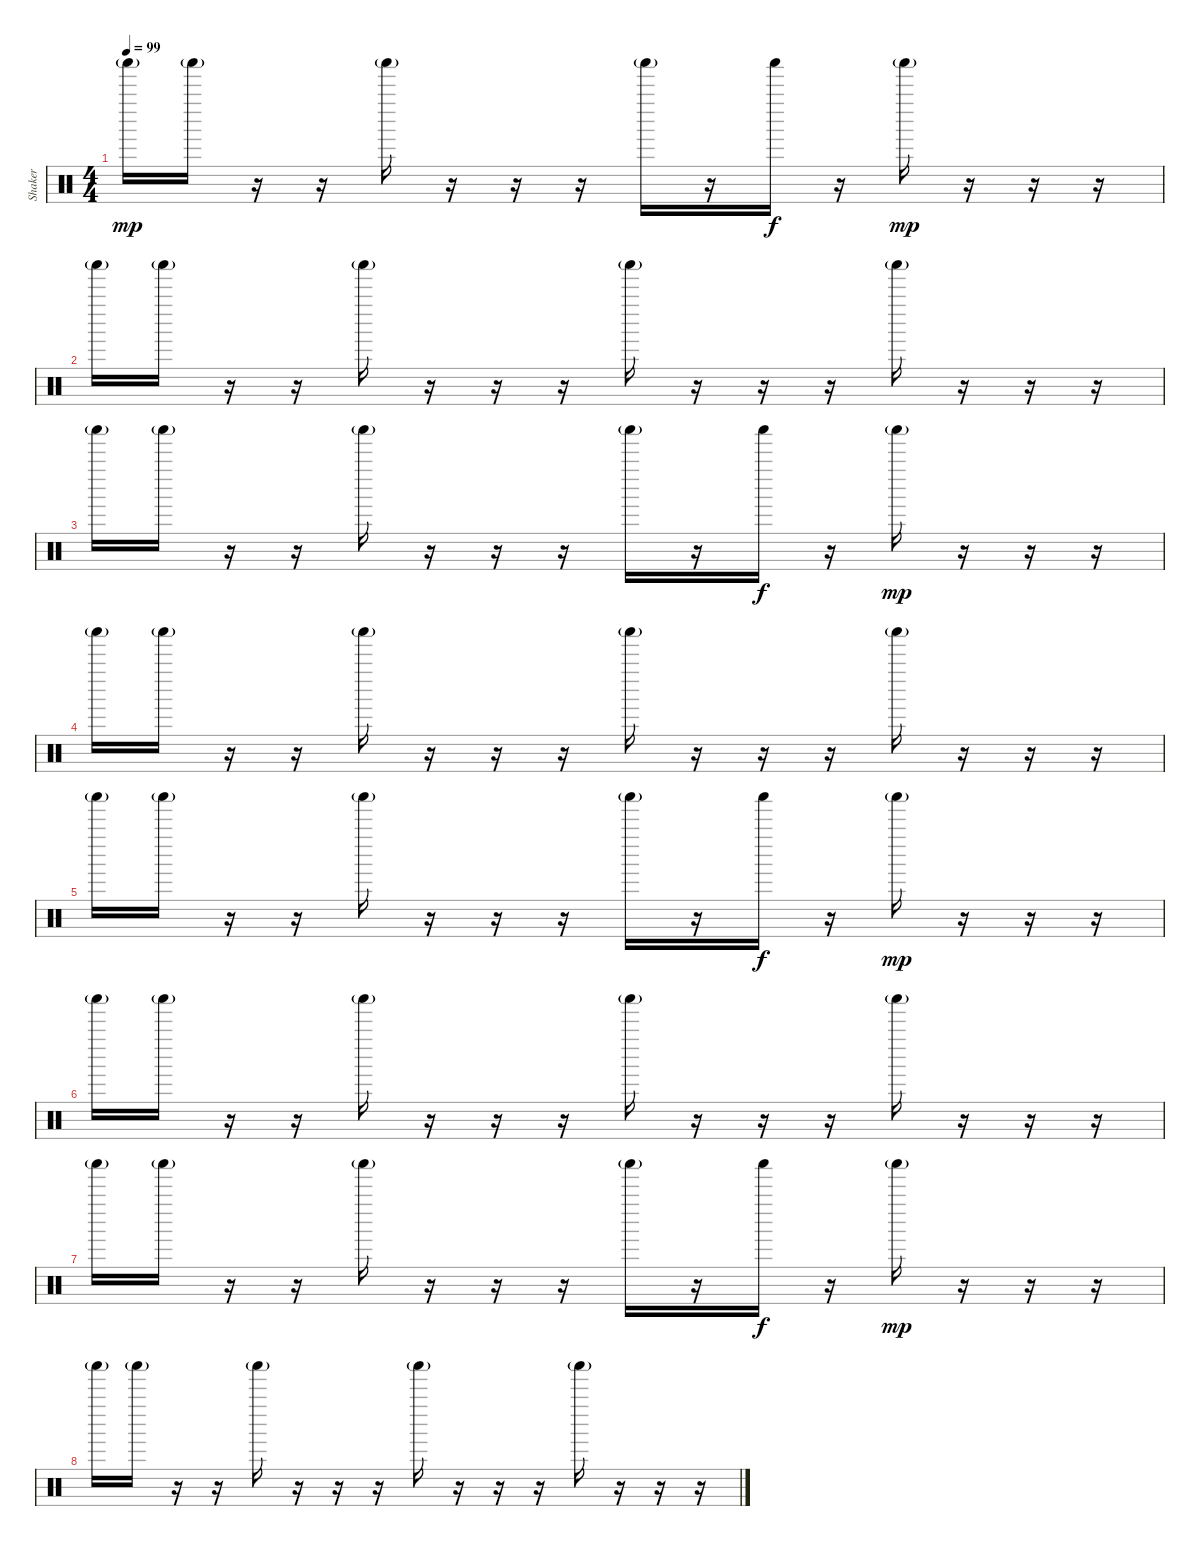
\track ("Shaker" "Shaker") {instrument percussion}
\staff {score}
\articulation defaults
\ts (4 4)
\tempo 99
\clef neutral
\ks c "Shaker (hit)"{g}.16{dy mp} "Shaker (hit)"{g}.16
r.16 r.16 "Shaker (hit)"{g}.16 r.16 r.16 r.16 "Shaker (hit)"{g}.16 r.16 "Shaker (hit)".16{dy f} r.16 "Shaker (hit)"{g}.16{dy mp} r.16 r.16 r.16 |
"Shaker (hit)"{g}.16 "Shaker (hit)"{g}.16 r.16 r.16 "Shaker (hit)"{g}.16 r.16 r.16 r.16 "Shaker (hit)"{g}.16 r.16 r.16 r.16 "Shaker (hit)"{g}.16 r.16 r.16 r.16 |
"Shaker (hit)"{g}.16 "Shaker (hit)"{g}.16 r.16 r.16 "Shaker (hit)"{g}.16 r.16 r.16 r.16 "Shaker (hit)"{g}.16 r.16 "Shaker (hit)".16{dy f} r.16 "Shaker (hit)"{g}.16{dy mp} r.16 r.16 r.16 |
"Shaker (hit)"{g}.16 "Shaker (hit)"{g}.16 r.16 r.16 "Shaker (hit)"{g}.16 r.16 r.16 r.16 "Shaker (hit)"{g}.16 r.16 r.16 r.16 "Shaker (hit)"{g}.16 r.16 r.16 r.16 |
"Shaker (hit)"{g}.16 "Shaker (hit)"{g}.16 r.16 r.16 "Shaker (hit)"{g}.16 r.16 r.16 r.16 "Shaker (hit)"{g}.16 r.16 "Shaker (hit)".16{dy f} r.16 "Shaker (hit)"{g}.16{dy mp} r.16 r.16 r.16 |
"Shaker (hit)"{g}.16 "Shaker (hit)"{g}.16 r.16 r.16 "Shaker (hit)"{g}.16 r.16 r.16 r.16 "Shaker (hit)"{g}.16 r.16 r.16 r.16 "Shaker (hit)"{g}.16 r.16 r.16 r.16 |
"Shaker (hit)"{g}.16 "Shaker (hit)"{g}.16 r.16 r.16 "Shaker (hit)"{g}.16 r.16 r.16 r.16 "Shaker (hit)"{g}.16 r.16 "Shaker (hit)".16{dy f} r.16 "Shaker (hit)"{g}.16{dy mp} r.16 r.16 r.16 |
"Shaker (hit)"{g}.16 "Shaker (hit)"{g}.16 r.16 r.16 "Shaker (hit)"{g}.16 r.16 r.16 r.16 "Shaker (hit)"{g}.16 r.16 r.16 r.16 "Shaker (hit)"{g}.16 r.16 r.16 r.16
